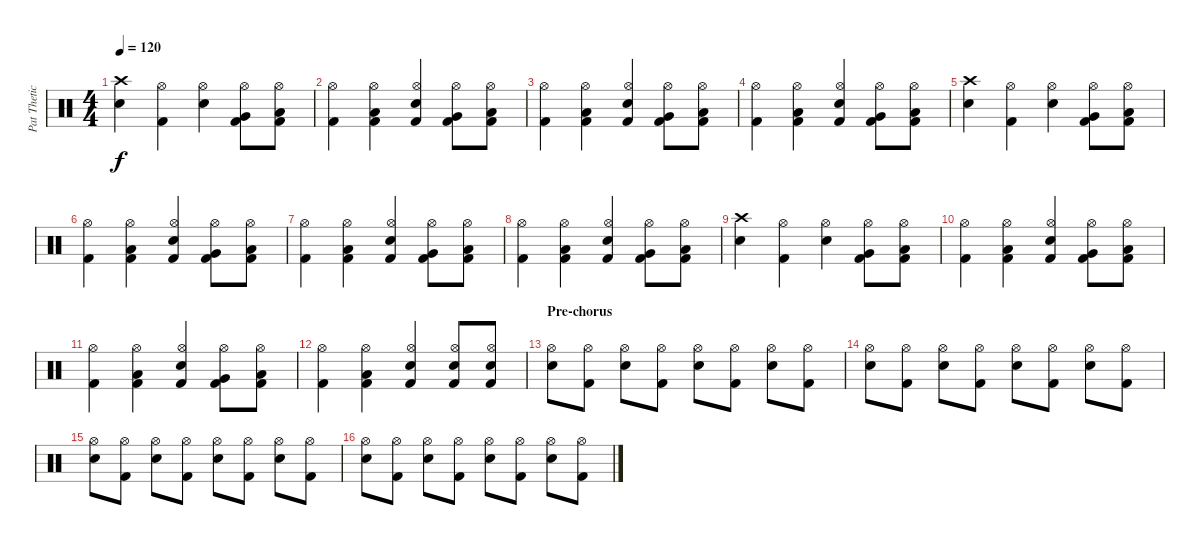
\track ("Pat Thetic (Drums)" "Pat Thetic") {instrument percussion}
\staff {score}
\articulation defaults
\ts (4 4)
\tempo 120
\clef neutral
\ks c
("Crash high (hit)" "Electric Snare (hit)").4{dy f} ("Hi-Hat (open)" "Kick (hit) 2").4 ("Hi-Hat (open)" "Electric Snare (hit)").4 ("Hi-Hat (open)" "Very Low Tom (hit)" "Kick (hit) 2").8 ("Hi-Hat (open)" "Low Floor Tom (hit)" "Kick (hit) 2").8 |
("Hi-Hat (open)" "Kick (hit) 2").4 ("Hi-Hat (open)" "Low Floor Tom (hit)" "Kick (hit) 2").4 ("Hi-Hat (open)" "Electric Snare (hit)" "Kick (hit) 2").4 ("Hi-Hat (open)" "Very Low Tom (hit)" "Kick (hit) 2").8 ("Hi-Hat (open)" "Low Floor Tom (hit)" "Kick (hit) 2").8 |
("Hi-Hat (open)" "Kick (hit) 2").4 ("Hi-Hat (open)" "Low Floor Tom (hit)" "Kick (hit) 2").4 ("Hi-Hat (open)" "Electric Snare (hit)" "Kick (hit) 2").4 ("Hi-Hat (open)" "Very Low Tom (hit)" "Kick (hit) 2").8 ("Hi-Hat (open)" "Low Floor Tom (hit)" "Kick (hit) 2").8 |
("Hi-Hat (open)" "Kick (hit) 2").4 ("Hi-Hat (open)" "Low Floor Tom (hit)" "Kick (hit) 2").4 ("Hi-Hat (open)" "Electric Snare (hit)" "Kick (hit) 2").4 ("Hi-Hat (open)" "Very Low Tom (hit)" "Kick (hit) 2").8 ("Hi-Hat (open)" "Low Floor Tom (hit)" "Kick (hit) 2").8 |
("Crash high (hit)" "Electric Snare (hit)").4 ("Hi-Hat (open)" "Kick (hit) 2").4 ("Hi-Hat (open)" "Electric Snare (hit)").4 ("Hi-Hat (open)" "Very Low Tom (hit)" "Kick (hit) 2").8 ("Hi-Hat (open)" "Low Floor Tom (hit)" "Kick (hit) 2").8 |
("Hi-Hat (open)" "Kick (hit) 2").4 ("Hi-Hat (open)" "Low Floor Tom (hit)" "Kick (hit) 2").4 ("Hi-Hat (open)" "Electric Snare (hit)" "Kick (hit) 2").4 ("Hi-Hat (open)" "Very Low Tom (hit)" "Kick (hit) 2").8 ("Hi-Hat (open)" "Low Floor Tom (hit)" "Kick (hit) 2").8 |
("Hi-Hat (open)" "Kick (hit) 2").4 ("Hi-Hat (open)" "Low Floor Tom (hit)" "Kick (hit) 2").4 ("Hi-Hat (open)" "Electric Snare (hit)" "Kick (hit) 2").4 ("Hi-Hat (open)" "Very Low Tom (hit)" "Kick (hit) 2").8 ("Hi-Hat (open)" "Low Floor Tom (hit)" "Kick (hit) 2").8 |
("Hi-Hat (open)" "Kick (hit) 2").4 ("Hi-Hat (open)" "Low Floor Tom (hit)" "Kick (hit) 2").4 ("Hi-Hat (open)" "Electric Snare (hit)" "Kick (hit) 2").4 ("Hi-Hat (open)" "Very Low Tom (hit)" "Kick (hit) 2").8 ("Hi-Hat (open)" "Low Floor Tom (hit)" "Kick (hit) 2").8 |
("Crash high (hit)" "Electric Snare (hit)").4 ("Hi-Hat (open)" "Kick (hit) 2").4 ("Hi-Hat (open)" "Electric Snare (hit)").4 ("Hi-Hat (open)" "Very Low Tom (hit)" "Kick (hit) 2").8 ("Hi-Hat (open)" "Low Floor Tom (hit)" "Kick (hit) 2").8 |
("Hi-Hat (open)" "Kick (hit) 2").4 ("Hi-Hat (open)" "Low Floor Tom (hit)" "Kick (hit) 2").4 ("Hi-Hat (open)" "Electric Snare (hit)" "Kick (hit) 2").4 ("Hi-Hat (open)" "Very Low Tom (hit)" "Kick (hit) 2").8 ("Hi-Hat (open)" "Low Floor Tom (hit)" "Kick (hit) 2").8 |
("Hi-Hat (open)" "Kick (hit) 2").4 ("Hi-Hat (open)" "Low Floor Tom (hit)" "Kick (hit) 2").4 ("Hi-Hat (open)" "Electric Snare (hit)" "Kick (hit) 2").4 ("Hi-Hat (open)" "Very Low Tom (hit)" "Kick (hit) 2").8 ("Hi-Hat (open)" "Low Floor Tom (hit)" "Kick (hit) 2").8 |
("Hi-Hat (open)" "Kick (hit) 2").4 ("Hi-Hat (open)" "Low Floor Tom (hit)" "Kick (hit) 2").4 ("Hi-Hat (open)" "Electric Snare (hit)" "Kick (hit) 2").4 ("Hi-Hat (open)" "Electric Snare (hit)" "Kick (hit) 2").8 ("Hi-Hat (open)" "Electric Snare (hit)" "Kick (hit) 2").8 |
\section ("" "Pre-chorus")
("Hi-Hat (open)" "Electric Snare (hit)").8 ("Hi-Hat (open)" "Kick (hit) 2").8 ("Hi-Hat (open)" "Electric Snare (hit)").8 ("Hi-Hat (open)" "Kick (hit) 2").8 ("Hi-Hat (open)" "Electric Snare (hit)").8 ("Hi-Hat (open)" "Kick (hit) 2").8 ("Hi-Hat (open)" "Electric Snare (hit)").8 ("Hi-Hat (open)" "Kick (hit) 2").8 |
("Hi-Hat (open)" "Electric Snare (hit)").8 ("Hi-Hat (open)" "Kick (hit) 2").8 ("Hi-Hat (open)" "Electric Snare (hit)").8 ("Hi-Hat (open)" "Kick (hit) 2").8 ("Hi-Hat (open)" "Electric Snare (hit)").8 ("Hi-Hat (open)" "Kick (hit) 2").8 ("Hi-Hat (open)" "Electric Snare (hit)").8 ("Hi-Hat (open)" "Kick (hit) 2").8 |
("Hi-Hat (open)" "Electric Snare (hit)").8 ("Hi-Hat (open)" "Kick (hit) 2").8 ("Hi-Hat (open)" "Electric Snare (hit)").8 ("Hi-Hat (open)" "Kick (hit) 2").8 ("Hi-Hat (open)" "Electric Snare (hit)").8 ("Hi-Hat (open)" "Kick (hit) 2").8 ("Hi-Hat (open)" "Electric Snare (hit)").8 ("Hi-Hat (open)" "Kick (hit) 2").8 |
("Hi-Hat (open)" "Electric Snare (hit)").8 ("Hi-Hat (open)" "Kick (hit) 2").8 ("Hi-Hat (open)" "Electric Snare (hit)").8 ("Hi-Hat (open)" "Kick (hit) 2").8 ("Hi-Hat (open)" "Electric Snare (hit)").8 ("Hi-Hat (open)" "Kick (hit) 2").8 ("Hi-Hat (open)" "Electric Snare (hit)").8 ("Hi-Hat (open)" "Kick (hit) 2").8
